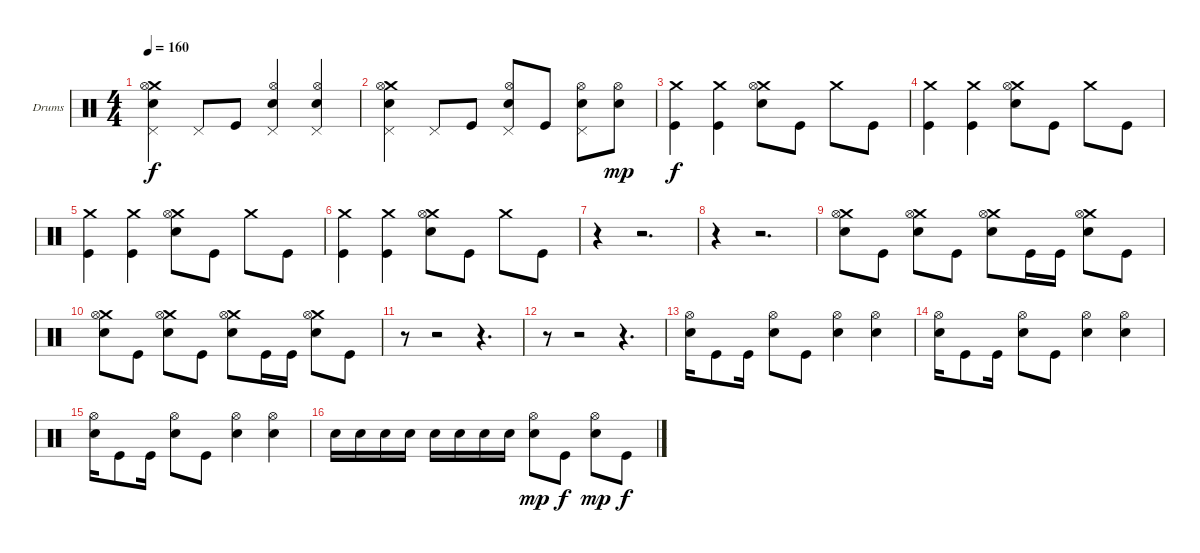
\bracketExtendMode groupsimilarinstruments
\firstSystemTrackNameOrientation horizontal
\otherSystemsTrackNameOrientation horizontal
\track ("Lars Ulrich (Drum)" "Drums") {instrument percussion}
\staff {score}
\articulation defaults
\ts (4 4)
\tempo 160
\clef neutral
\ks c
("Crash medium (hit)" "Pedal Hi-Hat (hit)" "Hi-Hat (open)" "Snare (hit) 2").4{dy f} "Pedal Hi-Hat (hit)".8 "Kick (hit)".8 ("Pedal Hi-Hat (hit)" "Hi-Hat (open)" "Snare (hit) 2").4 ("Pedal Hi-Hat (hit)" "Hi-Hat (open)" "Snare (hit) 2").4 |
("Crash medium (hit)" "Pedal Hi-Hat (hit)" "Hi-Hat (open)" "Snare (hit) 2").4 "Pedal Hi-Hat (hit)".8 "Kick (hit)".8 ("Pedal Hi-Hat (hit)" "Hi-Hat (open)" "Snare (hit) 2").8 "Kick (hit)".8 ("Pedal Hi-Hat (hit)" "Hi-Hat (open)" "Snare (hit) 2").8 ("Hi-Hat (open)" "Snare (hit) 2").8{dy mp} |
("Crash medium (hit)" "Kick (hit)").4{dy f} ("Crash medium (hit)" "Kick (hit)").4 ("Crash medium (hit)" "Hi-Hat (open)" "Snare (hit) 2").8 "Kick (hit)".8 "Crash medium (hit)".8 "Kick (hit)".8 |
("Crash medium (hit)" "Kick (hit)").4 ("Crash medium (hit)" "Kick (hit)").4 ("Crash medium (hit)" "Hi-Hat (open)" "Snare (hit) 2").8 "Kick (hit)".8 "Crash medium (hit)".8 "Kick (hit)".8 |
("Crash medium (hit)" "Kick (hit)").4 ("Crash medium (hit)" "Kick (hit)").4 ("Crash medium (hit)" "Hi-Hat (open)" "Snare (hit) 2").8 "Kick (hit)".8 "Crash medium (hit)".8 "Kick (hit)".8 |
("Crash medium (hit)" "Kick (hit)").4 ("Crash medium (hit)" "Kick (hit)").4 ("Crash medium (hit)" "Hi-Hat (open)" "Snare (hit) 2").8 "Kick (hit)".8 "Crash medium (hit)".8 "Kick (hit)".8 |
r.4 r.2{d} |
r.4 r.2{d} |
("Crash medium (hit)" "Hi-Hat (open)" "Snare (hit) 2").8 "Kick (hit)".8 ("Crash medium (hit)" "Hi-Hat (open)" "Snare (hit) 2").8 "Kick (hit)".8 ("Crash medium (hit)" "Hi-Hat (open)" "Snare (hit) 2").8 "Kick (hit)".16 "Kick (hit)".16 ("Crash medium (hit)" "Hi-Hat (open)" "Snare (hit) 2").8 "Kick (hit)".8 |
("Crash medium (hit)" "Hi-Hat (open)" "Snare (hit) 2").8 "Kick (hit)".8 ("Crash medium (hit)" "Hi-Hat (open)" "Snare (hit) 2").8 "Kick (hit)".8 ("Crash medium (hit)" "Hi-Hat (open)" "Snare (hit) 2").8 "Kick (hit)".16 "Kick (hit)".16 ("Crash medium (hit)" "Hi-Hat (open)" "Snare (hit) 2").8 "Kick (hit)".8 |
r.8 r.2 r.4{d} |
r.8 r.2 r.4{d} |
("Hi-Hat (open)" "Snare (hit) 2").16 "Kick (hit)".8 "Kick (hit)".16 ("Hi-Hat (open)" "Snare (hit) 2").8 "Kick (hit)".8 ("Hi-Hat (open)" "Snare (hit) 2").4 ("Hi-Hat (open)" "Snare (hit) 2").4 |
("Hi-Hat (open)" "Snare (hit) 2").16 "Kick (hit)".8 "Kick (hit)".16 ("Hi-Hat (open)" "Snare (hit) 2").8 "Kick (hit)".8 ("Hi-Hat (open)" "Snare (hit) 2").4 ("Hi-Hat (open)" "Snare (hit) 2").4 |
("Hi-Hat (open)" "Snare (hit) 2").16 "Kick (hit)".8 "Kick (hit)".16 ("Hi-Hat (open)" "Snare (hit) 2").8 "Kick (hit)".8 ("Hi-Hat (open)" "Snare (hit) 2").4 ("Hi-Hat (open)" "Snare (hit) 2").4 |
"Snare (hit) 2".16 "Snare (hit) 2".16 "Snare (hit) 2".16 "Snare (hit) 2".16 "Snare (hit) 2".16 "Snare (hit) 2".16 "Snare (hit) 2".16 "Snare (hit) 2".16 ("Hi-Hat (open)" "Snare (hit) 2").8{dy mp} "Kick (hit)".8{dy f} ("Hi-Hat (open)" "Snare (hit) 2").8{dy mp} "Kick (hit)".8{dy f}
